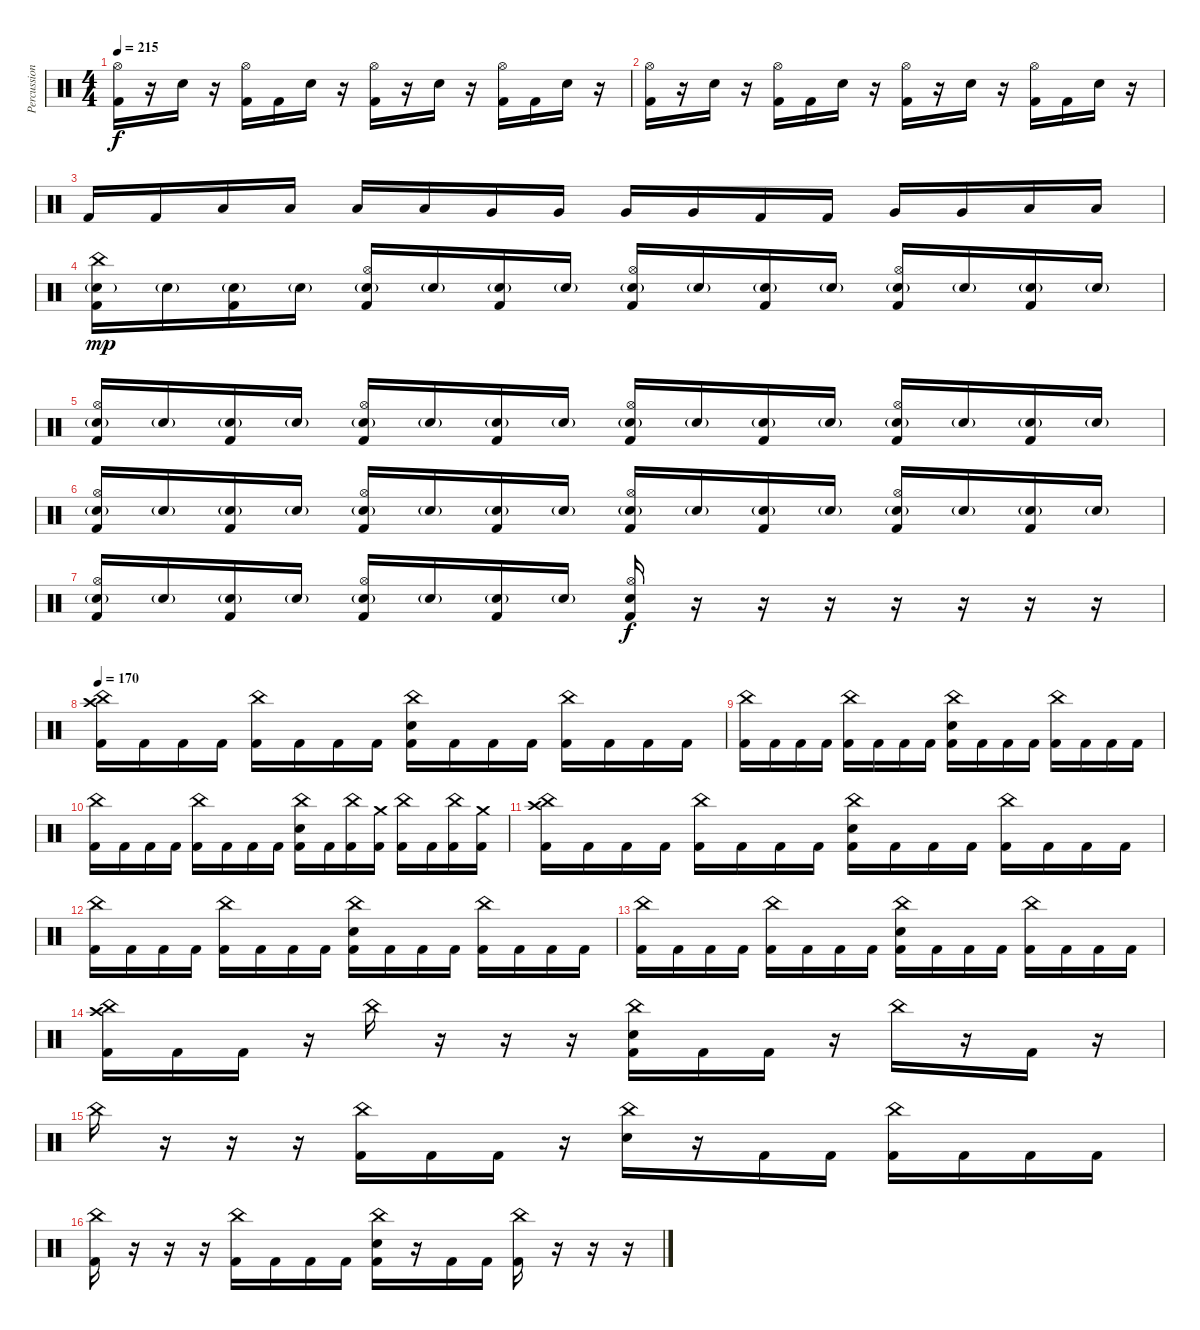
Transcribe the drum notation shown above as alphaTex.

\track ("Percussion" "Percussion") {instrument percussion}
\staff {score}
\articulation defaults
\ts (4 4)
\tempo 215
\clef neutral
\ks c
("Kick (hit) 2" "Hi-Hat (open)").16{dy f} r.16 "Electric Snare (hit)".16 r.16 ("Kick (hit) 2" "Hi-Hat (open)").16 "Kick (hit) 2".16 "Electric Snare (hit)".16 r.16 ("Kick (hit) 2" "Hi-Hat (open)").16 r.16 "Electric Snare (hit)".16 r.16 ("Kick (hit) 2" "Hi-Hat (open)").16 "Kick (hit) 2".16 "Electric Snare (hit)".16 r.16 |
("Kick (hit) 2" "Hi-Hat (open)").16 r.16 "Electric Snare (hit)".16 r.16 ("Kick (hit) 2" "Hi-Hat (open)").16 "Kick (hit) 2".16 "Electric Snare (hit)".16 r.16 ("Kick (hit) 2" "Hi-Hat (open)").16 r.16 "Electric Snare (hit)".16 r.16 ("Kick (hit) 2" "Hi-Hat (open)").16 "Kick (hit) 2".16 "Electric Snare (hit)".16 r.16 |
"Kick (hit) 2".16 "Kick (hit) 2".16 "Low Tom (hit)".16 "Low Tom (hit)".16 "Low Tom (hit)".16 "Low Tom (hit)".16 "Very Low Tom (hit)".16 "Very Low Tom (hit)".16 "Very Low Tom (hit)".16 "Very Low Tom (hit)".16 "Kick (hit) 2".16 "Kick (hit) 2".16 "Very Low Tom (hit)".16 "Very Low Tom (hit)".16 "Low Floor Tom (hit)".16 "Low Floor Tom (hit)".16 |
("Kick (hit) 2" "Electric Snare (hit)"{g} "China (hit)").16{dy mp} "Electric Snare (hit)"{g}.16 ("Kick (hit) 2" "Electric Snare (hit)"{g}).16 "Electric Snare (hit)"{g}.16 ("Kick (hit) 2" "Electric Snare (hit)"{g} "Hi-Hat (open)").16 "Electric Snare (hit)"{g}.16 ("Kick (hit) 2" "Electric Snare (hit)"{g}).16 "Electric Snare (hit)"{g}.16 ("Kick (hit) 2" "Electric Snare (hit)"{g} "Hi-Hat (open)").16 "Electric Snare (hit)"{g}.16 ("Kick (hit) 2" "Electric Snare (hit)"{g}).16 "Electric Snare (hit)"{g}.16 ("Kick (hit) 2" "Electric Snare (hit)"{g} "Hi-Hat (open)").16 "Electric Snare (hit)"{g}.16 ("Kick (hit) 2" "Electric Snare (hit)"{g}).16 "Electric Snare (hit)"{g}.16 |
("Kick (hit) 2" "Electric Snare (hit)"{g} "Hi-Hat (open)").16 "Electric Snare (hit)"{g}.16 ("Kick (hit) 2" "Electric Snare (hit)"{g}).16 "Electric Snare (hit)"{g}.16 ("Kick (hit) 2" "Electric Snare (hit)"{g} "Hi-Hat (open)").16 "Electric Snare (hit)"{g}.16 ("Kick (hit) 2" "Electric Snare (hit)"{g}).16 "Electric Snare (hit)"{g}.16 ("Kick (hit) 2" "Electric Snare (hit)"{g} "Hi-Hat (open)").16 "Electric Snare (hit)"{g}.16 ("Kick (hit) 2" "Electric Snare (hit)"{g}).16 "Electric Snare (hit)"{g}.16 ("Kick (hit) 2" "Electric Snare (hit)"{g} "Hi-Hat (open)").16 "Electric Snare (hit)"{g}.16 ("Kick (hit) 2" "Electric Snare (hit)"{g}).16 "Electric Snare (hit)"{g}.16 |
("Kick (hit) 2" "Electric Snare (hit)"{g} "Hi-Hat (open)").16 "Electric Snare (hit)"{g}.16 ("Kick (hit) 2" "Electric Snare (hit)"{g}).16 "Electric Snare (hit)"{g}.16 ("Kick (hit) 2" "Electric Snare (hit)"{g} "Hi-Hat (open)").16 "Electric Snare (hit)"{g}.16 ("Kick (hit) 2" "Electric Snare (hit)"{g}).16 "Electric Snare (hit)"{g}.16 ("Kick (hit) 2" "Electric Snare (hit)"{g} "Hi-Hat (open)").16 "Electric Snare (hit)"{g}.16 ("Kick (hit) 2" "Electric Snare (hit)"{g}).16 "Electric Snare (hit)"{g}.16 ("Kick (hit) 2" "Electric Snare (hit)"{g} "Hi-Hat (open)").16 "Electric Snare (hit)"{g}.16 ("Kick (hit) 2" "Electric Snare (hit)"{g}).16 "Electric Snare (hit)"{g}.16 |
("Kick (hit) 2" "Electric Snare (hit)"{g} "Hi-Hat (open)").16 "Electric Snare (hit)"{g}.16 ("Kick (hit) 2" "Electric Snare (hit)"{g}).16 "Electric Snare (hit)"{g}.16 ("Kick (hit) 2" "Electric Snare (hit)"{g} "Hi-Hat (open)").16 "Electric Snare (hit)"{g}.16 ("Kick (hit) 2" "Electric Snare (hit)"{g}).16 "Electric Snare (hit)"{g}.16 ("Kick (hit) 2" "Electric Snare (hit)" "Hi-Hat (open)").16{dy f} r.16 r.16 r.16 r.16 r.16 r.16 r.16 |
\tempo 170
("Kick (hit) 2" "Crash high (hit)" "China (hit)").16 "Kick (hit) 2".16 "Kick (hit) 2".16 "Kick (hit) 2".16 ("Kick (hit) 2" "China (hit)").16 "Kick (hit) 2".16 "Kick (hit) 2".16 "Kick (hit) 2".16 ("Kick (hit) 2" "Electric Snare (hit)" "China (hit)").16 "Kick (hit) 2".16 "Kick (hit) 2".16 "Kick (hit) 2".16 ("Kick (hit) 2" "China (hit)").16 "Kick (hit) 2".16 "Kick (hit) 2".16 "Kick (hit) 2".16 |
("Kick (hit) 2" "China (hit)").16 "Kick (hit) 2".16 "Kick (hit) 2".16 "Kick (hit) 2".16 ("Kick (hit) 2" "China (hit)").16 "Kick (hit) 2".16 "Kick (hit) 2".16 "Kick (hit) 2".16 ("Kick (hit) 2" "Electric Snare (hit)" "China (hit)").16 "Kick (hit) 2".16 "Kick (hit) 2".16 "Kick (hit) 2".16 ("Kick (hit) 2" "China (hit)").16 "Kick (hit) 2".16 "Kick (hit) 2".16 "Kick (hit) 2".16 |
("Kick (hit) 2" "China (hit)").16 "Kick (hit) 2".16 "Kick (hit) 2".16 "Kick (hit) 2".16 ("Kick (hit) 2" "China (hit)").16 "Kick (hit) 2".16 "Kick (hit) 2".16 "Kick (hit) 2".16 ("Kick (hit) 2" "Electric Snare (hit)" "China (hit)").16 "Kick (hit) 2".16 ("Kick (hit) 2" "China (hit)").16 ("Kick (hit) 2" "Crash medium (hit)").16 ("Kick (hit) 2" "China (hit)").16 "Kick (hit) 2".16 ("Kick (hit) 2" "China (hit)").16 ("Kick (hit) 2" "Crash medium (hit)").16 |
("Kick (hit) 2" "Crash high (hit)" "China (hit)").16 "Kick (hit) 2".16 "Kick (hit) 2".16 "Kick (hit) 2".16 ("Kick (hit) 2" "China (hit)").16 "Kick (hit) 2".16 "Kick (hit) 2".16 "Kick (hit) 2".16 ("Kick (hit) 2" "Electric Snare (hit)" "China (hit)").16 "Kick (hit) 2".16 "Kick (hit) 2".16 "Kick (hit) 2".16 ("Kick (hit) 2" "China (hit)").16 "Kick (hit) 2".16 "Kick (hit) 2".16 "Kick (hit) 2".16 |
("Kick (hit) 2" "China (hit)").16 "Kick (hit) 2".16 "Kick (hit) 2".16 "Kick (hit) 2".16 ("Kick (hit) 2" "China (hit)").16 "Kick (hit) 2".16 "Kick (hit) 2".16 "Kick (hit) 2".16 ("Kick (hit) 2" "Electric Snare (hit)" "China (hit)").16 "Kick (hit) 2".16 "Kick (hit) 2".16 "Kick (hit) 2".16 ("Kick (hit) 2" "China (hit)").16 "Kick (hit) 2".16 "Kick (hit) 2".16 "Kick (hit) 2".16 |
("Kick (hit) 2" "China (hit)").16 "Kick (hit) 2".16 "Kick (hit) 2".16 "Kick (hit) 2".16 ("Kick (hit) 2" "China (hit)").16 "Kick (hit) 2".16 "Kick (hit) 2".16 "Kick (hit) 2".16 ("Kick (hit) 2" "Electric Snare (hit)" "China (hit)").16 "Kick (hit) 2".16 "Kick (hit) 2".16 "Kick (hit) 2".16 ("Kick (hit) 2" "China (hit)").16 "Kick (hit) 2".16 "Kick (hit) 2".16 "Kick (hit) 2".16 |
("Kick (hit) 2" "China (hit)" "Crash high (hit)").16 "Kick (hit) 2".16 "Kick (hit) 2".16 r.16 "China (hit)".16 r.16 r.16 r.16 ("Kick (hit) 2" "Electric Snare (hit)" "China (hit)").16 "Kick (hit) 2".16 "Kick (hit) 2".16 r.16 "China (hit)".16 r.16 "Kick (hit) 2".16 r.16 |
"China (hit)".16 r.16 r.16 r.16 ("Kick (hit) 2" "China (hit)").16 "Kick (hit) 2".16 "Kick (hit) 2".16 r.16 ("Electric Snare (hit)" "China (hit)").16 r.16 "Kick (hit) 2".16 "Kick (hit) 2".16 ("Kick (hit) 2" "China (hit)").16 "Kick (hit) 2".16 "Kick (hit) 2".16 "Kick (hit) 2".16 |
("Kick (hit) 2" "China (hit)").16 r.16 r.16 r.16 ("Kick (hit) 2" "China (hit)").16 "Kick (hit) 2".16 "Kick (hit) 2".16 "Kick (hit) 2".16 ("Kick (hit) 2" "Electric Snare (hit)" "China (hit)").16 r.16 "Kick (hit) 2".16 "Kick (hit) 2".16 ("Kick (hit) 2" "China (hit)").16 r.16 r.16 r.16
